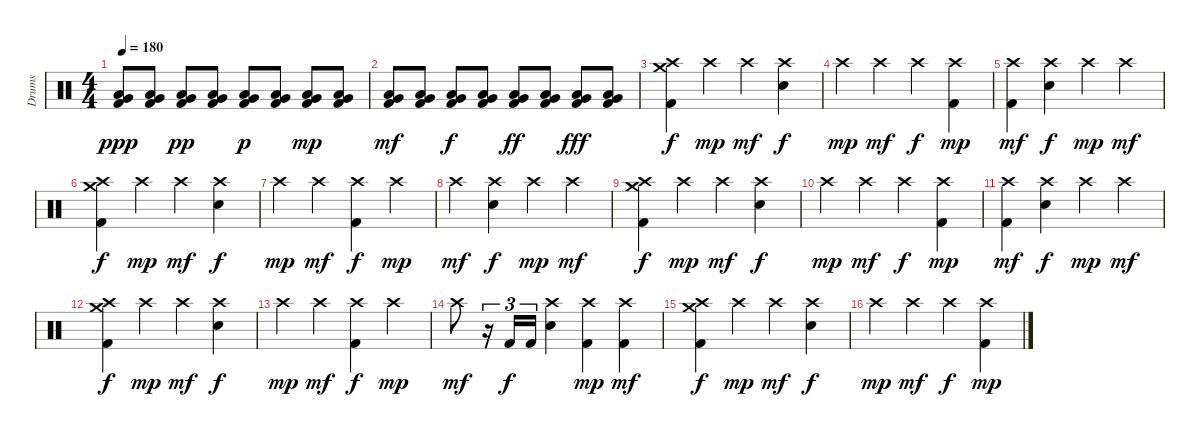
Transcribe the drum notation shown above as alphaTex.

\track ("Drums" "Drums") {instrument percussion}
\staff {score}
\articulation defaults
\ts (4 4)
\tempo 180
\clef neutral
\ks c
("Low Tom (hit)" "Very Low Tom (hit)" "Kick (hit) 2").8{dy ppp} ("Low Tom (hit)" "Very Low Tom (hit)" "Kick (hit) 2").8 ("Low Tom (hit)" "Very Low Tom (hit)" "Kick (hit) 2").8{dy pp} ("Low Tom (hit)" "Very Low Tom (hit)" "Kick (hit) 2").8 ("Low Tom (hit)" "Very Low Tom (hit)" "Kick (hit) 2").8{dy p} ("Low Tom (hit)" "Very Low Tom (hit)" "Kick (hit) 2").8 ("Low Tom (hit)" "Very Low Tom (hit)" "Kick (hit) 2").8{dy mp} ("Low Tom (hit)" "Very Low Tom (hit)" "Kick (hit) 2").8 |
("Low Tom (hit)" "Very Low Tom (hit)" "Kick (hit) 2").8{dy mf} ("Low Tom (hit)" "Very Low Tom (hit)" "Kick (hit) 2").8 ("Low Tom (hit)" "Very Low Tom (hit)" "Kick (hit) 2").8{dy f} ("Low Tom (hit)" "Very Low Tom (hit)" "Kick (hit) 2").8 ("Low Tom (hit)" "Very Low Tom (hit)" "Kick (hit) 2").8{dy ff} ("Low Tom (hit)" "Very Low Tom (hit)" "Kick (hit) 2").8 ("Low Tom (hit)" "Very Low Tom (hit)" "Kick (hit) 2").8{dy fff} ("Low Tom (hit)" "Very Low Tom (hit)" "Kick (hit) 2").8 |
("Crash medium (hit)" "Crash high (hit)" "Kick (hit) 2").4{dy f} "Crash high (hit)".4{dy mp} "Crash high (hit)".4{dy mf} ("Crash high (hit)" "Electric Snare (hit)").4{dy f} |
"Crash high (hit)".4{dy mp} "Crash high (hit)".4{dy mf} "Crash high (hit)".4{dy f} ("Crash high (hit)" "Kick (hit) 2").4{dy mp} |
("Crash high (hit)" "Kick (hit) 2").4{dy mf} ("Crash high (hit)" "Electric Snare (hit)").4{dy f} "Crash high (hit)".4{dy mp} "Crash high (hit)".4{dy mf} |
("Crash medium (hit)" "Crash high (hit)" "Kick (hit) 2").4{dy f} "Crash high (hit)".4{dy mp} "Crash high (hit)".4{dy mf} ("Crash high (hit)" "Electric Snare (hit)").4{dy f} |
"Crash high (hit)".4{dy mp} "Crash high (hit)".4{dy mf} ("Crash high (hit)" "Kick (hit) 2").4{dy f} "Crash high (hit)".4{dy mp} |
"Crash high (hit)".4{dy mf} ("Crash high (hit)" "Electric Snare (hit)").4{dy f} "Crash high (hit)".4{dy mp} "Crash high (hit)".4{dy mf} |
("Crash medium (hit)" "Crash high (hit)" "Kick (hit) 2").4{dy f} "Crash high (hit)".4{dy mp} "Crash high (hit)".4{dy mf} ("Crash high (hit)" "Electric Snare (hit)").4{dy f} |
"Crash high (hit)".4{dy mp} "Crash high (hit)".4{dy mf} "Crash high (hit)".4{dy f} ("Crash high (hit)" "Kick (hit) 2").4{dy mp} |
("Crash high (hit)" "Kick (hit) 2").4{dy mf} ("Crash high (hit)" "Electric Snare (hit)").4{dy f} "Crash high (hit)".4{dy mp} "Crash high (hit)".4{dy mf} |
("Crash medium (hit)" "Crash high (hit)" "Kick (hit) 2").4{dy f} "Crash high (hit)".4{dy mp} "Crash high (hit)".4{dy mf} ("Crash high (hit)" "Electric Snare (hit)").4{dy f} |
"Crash high (hit)".4{dy mp} "Crash high (hit)".4{dy mf} ("Crash high (hit)" "Kick (hit) 2").4{dy f} "Crash high (hit)".4{dy mp} |
"Crash high (hit)".8{dy mf} r.16{tu (3 2)} "Kick (hit) 2".16{tu (3 2) dy f} "Kick (hit) 2".16{tu (3 2)} ("Crash high (hit)" "Electric Snare (hit)").4 ("Crash high (hit)" "Kick (hit) 2").4{dy mp} ("Crash high (hit)" "Kick (hit) 2").4{dy mf} |
("Crash medium (hit)" "Crash high (hit)" "Kick (hit) 2").4{dy f} "Crash high (hit)".4{dy mp} "Crash high (hit)".4{dy mf} ("Crash high (hit)" "Electric Snare (hit)").4{dy f} |
"Crash high (hit)".4{dy mp} "Crash high (hit)".4{dy mf} "Crash high (hit)".4{dy f} ("Crash high (hit)" "Kick (hit) 2").4{dy mp}
